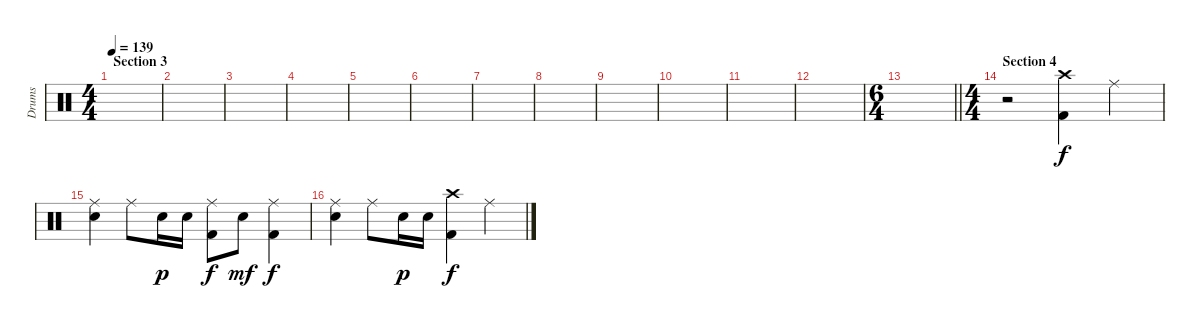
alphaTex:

\track ("Drums" "Drums") {instrument percussion}
\staff {score}
\articulation defaults
\ts (4 4)
\section ("" "Section 3")
\tempo 139
\clef neutral
\ks c
|
|
|
|
|
|
|
|
|
|
|
|
\ts (6 4)
\barLineRight lightlight
|
\ts (4 4)
\section ("" "Section 4")
r.2 ("Crash high (hit)" "Kick (hit) 2").4 "Ride (middle)".4 |
("Ride (middle)" "Electric Snare (hit)").4 "Ride (middle)".8 "Electric Snare (hit)".16{dy p} "Electric Snare (hit)".16 ("Ride (middle)" "Kick (hit) 2").8{dy f} "Electric Snare (hit)".8{dy mf} ("Ride (middle)" "Kick (hit) 2").4{dy f} |
("Ride (middle)" "Electric Snare (hit)").4 "Ride (middle)".8 "Electric Snare (hit)".16{dy p} "Electric Snare (hit)".16 ("Crash high (hit)" "Kick (hit) 2").4{dy f} "Ride (middle)".4
